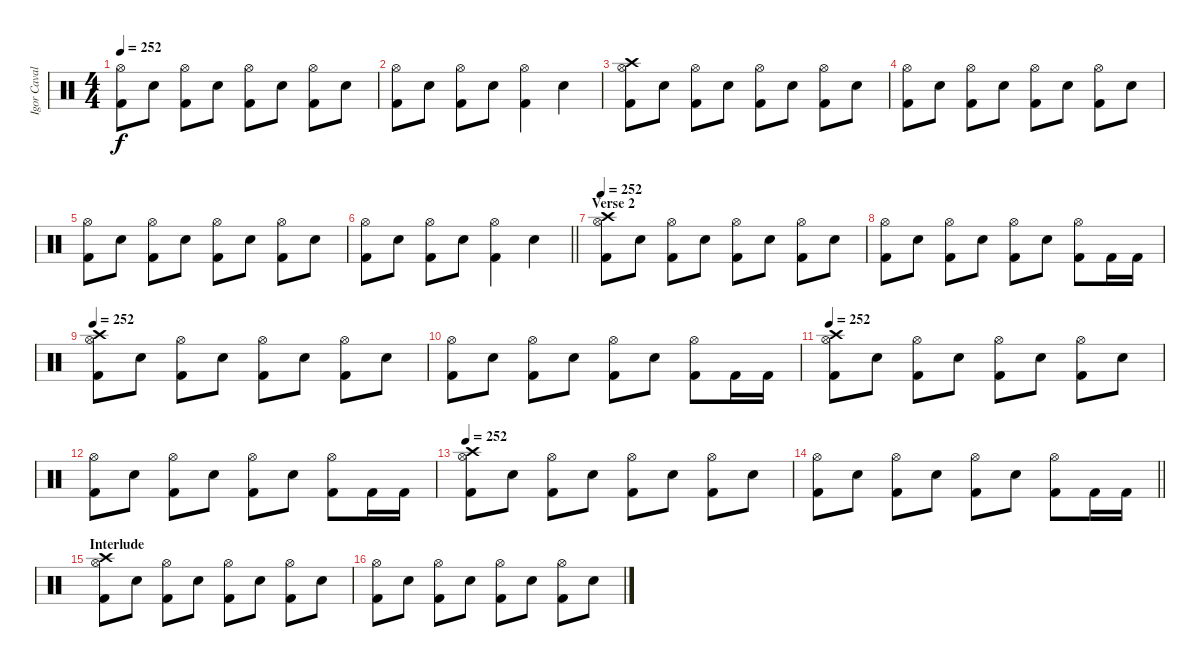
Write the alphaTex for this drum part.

\track ("Igor Cavalera" "Igor Caval") {instrument percussion}
\staff {score}
\articulation defaults
\ts (4 4)
\tempo 252
\clef neutral
\ks c
("Hi-Hat (open)" "Kick (hit) 2").8{dy f} "Electric Snare (hit)".8 ("Hi-Hat (open)" "Kick (hit) 2").8 "Electric Snare (hit)".8 ("Hi-Hat (open)" "Kick (hit) 2").8 "Electric Snare (hit)".8 ("Hi-Hat (open)" "Kick (hit) 2").8 "Electric Snare (hit)".8 |
("Hi-Hat (open)" "Kick (hit) 2").8 "Electric Snare (hit)".8 ("Hi-Hat (open)" "Kick (hit) 2").8 "Electric Snare (hit)".8 ("Hi-Hat (open)" "Kick (hit) 2").4 "Electric Snare (hit)".4 |
("Crash high (hit)" "Hi-Hat (open)" "Kick (hit) 2").8 "Electric Snare (hit)".8 ("Hi-Hat (open)" "Kick (hit) 2").8 "Electric Snare (hit)".8 ("Hi-Hat (open)" "Kick (hit) 2").8 "Electric Snare (hit)".8 ("Hi-Hat (open)" "Kick (hit) 2").8 "Electric Snare (hit)".8 |
("Hi-Hat (open)" "Kick (hit) 2").8 "Electric Snare (hit)".8 ("Hi-Hat (open)" "Kick (hit) 2").8 "Electric Snare (hit)".8 ("Hi-Hat (open)" "Kick (hit) 2").8 "Electric Snare (hit)".8 ("Hi-Hat (open)" "Kick (hit) 2").8 "Electric Snare (hit)".8 |
("Hi-Hat (open)" "Kick (hit) 2").8 "Electric Snare (hit)".8 ("Hi-Hat (open)" "Kick (hit) 2").8 "Electric Snare (hit)".8 ("Hi-Hat (open)" "Kick (hit) 2").8 "Electric Snare (hit)".8 ("Hi-Hat (open)" "Kick (hit) 2").8 "Electric Snare (hit)".8 |
\barLineRight lightlight
("Hi-Hat (open)" "Kick (hit) 2").8 "Electric Snare (hit)".8 ("Hi-Hat (open)" "Kick (hit) 2").8 "Electric Snare (hit)".8 ("Hi-Hat (open)" "Kick (hit) 2").4 "Electric Snare (hit)".4 |
\section ("" "Verse 2")
\tempo 252
("Crash high (hit)" "Hi-Hat (open)" "Kick (hit) 2").8 "Electric Snare (hit)".8 ("Hi-Hat (open)" "Kick (hit) 2").8 "Electric Snare (hit)".8 ("Hi-Hat (open)" "Kick (hit) 2").8 "Electric Snare (hit)".8 ("Hi-Hat (open)" "Kick (hit) 2").8 "Electric Snare (hit)".8 |
("Hi-Hat (open)" "Kick (hit) 2").8 "Electric Snare (hit)".8 ("Hi-Hat (open)" "Kick (hit) 2").8 "Electric Snare (hit)".8 ("Hi-Hat (open)" "Kick (hit) 2").8 "Electric Snare (hit)".8 ("Hi-Hat (open)" "Kick (hit) 2").8 "Kick (hit) 2".16 "Kick (hit) 2".16 |
\tempo 252
("Crash high (hit)" "Hi-Hat (open)" "Kick (hit) 2").8 "Electric Snare (hit)".8 ("Hi-Hat (open)" "Kick (hit) 2").8 "Electric Snare (hit)".8 ("Hi-Hat (open)" "Kick (hit) 2").8 "Electric Snare (hit)".8 ("Hi-Hat (open)" "Kick (hit) 2").8 "Electric Snare (hit)".8 |
("Hi-Hat (open)" "Kick (hit) 2").8 "Electric Snare (hit)".8 ("Hi-Hat (open)" "Kick (hit) 2").8 "Electric Snare (hit)".8 ("Hi-Hat (open)" "Kick (hit) 2").8 "Electric Snare (hit)".8 ("Hi-Hat (open)" "Kick (hit) 2").8 "Kick (hit) 2".16 "Kick (hit) 2".16 |
\tempo 252
("Crash high (hit)" "Hi-Hat (open)" "Kick (hit) 2").8 "Electric Snare (hit)".8 ("Hi-Hat (open)" "Kick (hit) 2").8 "Electric Snare (hit)".8 ("Hi-Hat (open)" "Kick (hit) 2").8 "Electric Snare (hit)".8 ("Hi-Hat (open)" "Kick (hit) 2").8 "Electric Snare (hit)".8 |
("Hi-Hat (open)" "Kick (hit) 2").8 "Electric Snare (hit)".8 ("Hi-Hat (open)" "Kick (hit) 2").8 "Electric Snare (hit)".8 ("Hi-Hat (open)" "Kick (hit) 2").8 "Electric Snare (hit)".8 ("Hi-Hat (open)" "Kick (hit) 2").8 "Kick (hit) 2".16 "Kick (hit) 2".16 |
\tempo 252
("Crash high (hit)" "Hi-Hat (open)" "Kick (hit) 2").8 "Electric Snare (hit)".8 ("Hi-Hat (open)" "Kick (hit) 2").8 "Electric Snare (hit)".8 ("Hi-Hat (open)" "Kick (hit) 2").8 "Electric Snare (hit)".8 ("Hi-Hat (open)" "Kick (hit) 2").8 "Electric Snare (hit)".8 |
\barLineRight lightlight
("Hi-Hat (open)" "Kick (hit) 2").8 "Electric Snare (hit)".8 ("Hi-Hat (open)" "Kick (hit) 2").8 "Electric Snare (hit)".8 ("Hi-Hat (open)" "Kick (hit) 2").8 "Electric Snare (hit)".8 ("Hi-Hat (open)" "Kick (hit) 2").8 "Kick (hit) 2".16 "Kick (hit) 2".16 |
\section ("" "Interlude")
("Crash high (hit)" "Hi-Hat (open)" "Kick (hit) 2").8 "Electric Snare (hit)".8 ("Hi-Hat (open)" "Kick (hit) 2").8 "Electric Snare (hit)".8 ("Hi-Hat (open)" "Kick (hit) 2").8 "Electric Snare (hit)".8 ("Hi-Hat (open)" "Kick (hit) 2").8 "Electric Snare (hit)".8 |
("Hi-Hat (open)" "Kick (hit) 2").8 "Electric Snare (hit)".8 ("Hi-Hat (open)" "Kick (hit) 2").8 "Electric Snare (hit)".8 ("Hi-Hat (open)" "Kick (hit) 2").8 "Electric Snare (hit)".8 ("Hi-Hat (open)" "Kick (hit) 2").8 "Electric Snare (hit)".8
